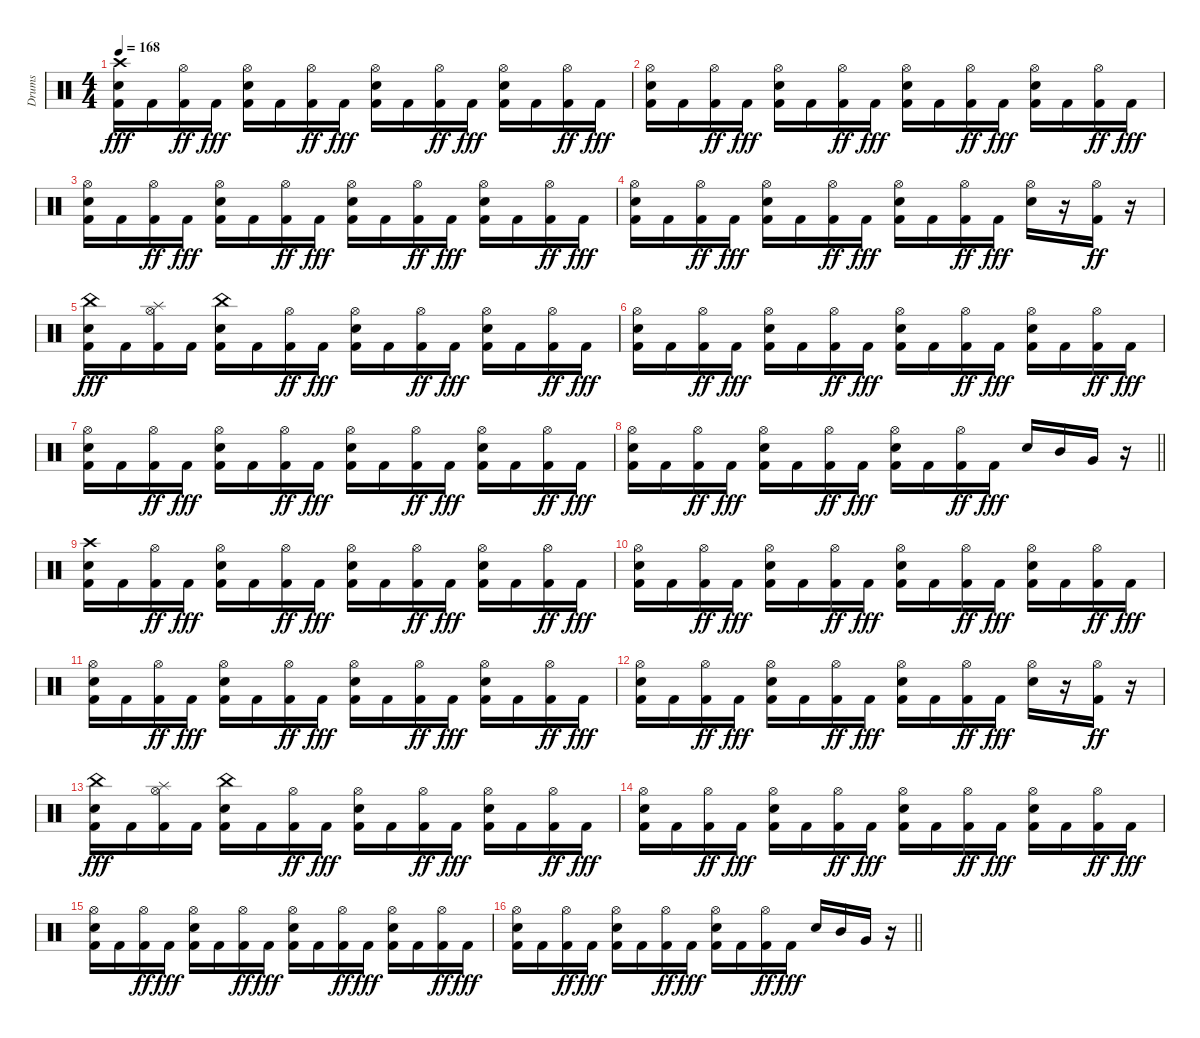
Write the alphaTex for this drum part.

\track ("Drums" "Drums") {instrument percussion}
\staff {score}
\articulation defaults
\ts (4 4)
\tempo 168
\clef neutral
\ks c
("Kick (hit) 2" "Snare (hit) 2" "Crash high (hit)").16{dy fff} "Kick (hit) 2".16 ("Kick (hit) 2" "Hi-Hat (open)").16{dy ff} "Kick (hit) 2".16{dy fff} ("Kick (hit) 2" "Snare (hit) 2" "Hi-Hat (open)").16 "Kick (hit) 2".16 ("Kick (hit) 2" "Hi-Hat (open)").16{dy ff} "Kick (hit) 2".16{dy fff} ("Kick (hit) 2" "Snare (hit) 2" "Hi-Hat (open)").16 "Kick (hit) 2".16 ("Kick (hit) 2" "Hi-Hat (open)").16{dy ff} "Kick (hit) 2".16{dy fff} ("Kick (hit) 2" "Snare (hit) 2" "Hi-Hat (open)").16 "Kick (hit) 2".16 ("Kick (hit) 2" "Hi-Hat (open)").16{dy ff} "Kick (hit) 2".16{dy fff} |
("Kick (hit) 2" "Snare (hit) 2" "Hi-Hat (open)").16 "Kick (hit) 2".16 ("Kick (hit) 2" "Hi-Hat (open)").16{dy ff} "Kick (hit) 2".16{dy fff} ("Kick (hit) 2" "Snare (hit) 2" "Hi-Hat (open)").16 "Kick (hit) 2".16 ("Kick (hit) 2" "Hi-Hat (open)").16{dy ff} "Kick (hit) 2".16{dy fff} ("Kick (hit) 2" "Snare (hit) 2" "Hi-Hat (open)").16 "Kick (hit) 2".16 ("Kick (hit) 2" "Hi-Hat (open)").16{dy ff} "Kick (hit) 2".16{dy fff} ("Kick (hit) 2" "Snare (hit) 2" "Hi-Hat (open)").16 "Kick (hit) 2".16 ("Kick (hit) 2" "Hi-Hat (open)").16{dy ff} "Kick (hit) 2".16{dy fff} |
("Kick (hit) 2" "Snare (hit) 2" "Hi-Hat (open)").16 "Kick (hit) 2".16 ("Kick (hit) 2" "Hi-Hat (open)").16{dy ff} "Kick (hit) 2".16{dy fff} ("Kick (hit) 2" "Snare (hit) 2" "Hi-Hat (open)").16 "Kick (hit) 2".16 ("Kick (hit) 2" "Hi-Hat (open)").16{dy ff} "Kick (hit) 2".16{dy fff} ("Kick (hit) 2" "Snare (hit) 2" "Hi-Hat (open)").16 "Kick (hit) 2".16 ("Kick (hit) 2" "Hi-Hat (open)").16{dy ff} "Kick (hit) 2".16{dy fff} ("Kick (hit) 2" "Snare (hit) 2" "Hi-Hat (open)").16 "Kick (hit) 2".16 ("Kick (hit) 2" "Hi-Hat (open)").16{dy ff} "Kick (hit) 2".16{dy fff} |
("Kick (hit) 2" "Snare (hit) 2" "Hi-Hat (open)").16 "Kick (hit) 2".16 ("Kick (hit) 2" "Hi-Hat (open)").16{dy ff} "Kick (hit) 2".16{dy fff} ("Kick (hit) 2" "Snare (hit) 2" "Hi-Hat (open)").16 "Kick (hit) 2".16 ("Kick (hit) 2" "Hi-Hat (open)").16{dy ff} "Kick (hit) 2".16{dy fff} ("Kick (hit) 2" "Snare (hit) 2" "Hi-Hat (open)").16 "Kick (hit) 2".16 ("Kick (hit) 2" "Hi-Hat (open)").16{dy ff} "Kick (hit) 2".16{dy fff} ("Snare (hit) 2" "Hi-Hat (open)").16 r.16 ("Kick (hit) 2" "Hi-Hat (open)").16{dy ff} r.16 |
("Kick (hit) 2" "Snare (hit) 2" "China (hit)").16{dy fff} "Kick (hit) 2".16 ("Kick (hit) 2" "Hi-Hat (open)" "Splash (hit)").16 "Kick (hit) 2".16 ("Kick (hit) 2" "Snare (hit) 2" "China (hit)").16 "Kick (hit) 2".16 ("Kick (hit) 2" "Hi-Hat (open)").16{dy ff} "Kick (hit) 2".16{dy fff} ("Kick (hit) 2" "Snare (hit) 2" "Hi-Hat (open)").16 "Kick (hit) 2".16 ("Kick (hit) 2" "Hi-Hat (open)").16{dy ff} "Kick (hit) 2".16{dy fff} ("Kick (hit) 2" "Snare (hit) 2" "Hi-Hat (open)").16 "Kick (hit) 2".16 ("Kick (hit) 2" "Hi-Hat (open)").16{dy ff} "Kick (hit) 2".16{dy fff} |
("Kick (hit) 2" "Snare (hit) 2" "Hi-Hat (open)").16 "Kick (hit) 2".16 ("Kick (hit) 2" "Hi-Hat (open)").16{dy ff} "Kick (hit) 2".16{dy fff} ("Kick (hit) 2" "Snare (hit) 2" "Hi-Hat (open)").16 "Kick (hit) 2".16 ("Kick (hit) 2" "Hi-Hat (open)").16{dy ff} "Kick (hit) 2".16{dy fff} ("Kick (hit) 2" "Snare (hit) 2" "Hi-Hat (open)").16 "Kick (hit) 2".16 ("Kick (hit) 2" "Hi-Hat (open)").16{dy ff} "Kick (hit) 2".16{dy fff} ("Kick (hit) 2" "Snare (hit) 2" "Hi-Hat (open)").16 "Kick (hit) 2".16 ("Kick (hit) 2" "Hi-Hat (open)").16{dy ff} "Kick (hit) 2".16{dy fff} |
("Kick (hit) 2" "Snare (hit) 2" "Hi-Hat (open)").16 "Kick (hit) 2".16 ("Kick (hit) 2" "Hi-Hat (open)").16{dy ff} "Kick (hit) 2".16{dy fff} ("Kick (hit) 2" "Snare (hit) 2" "Hi-Hat (open)").16 "Kick (hit) 2".16 ("Kick (hit) 2" "Hi-Hat (open)").16{dy ff} "Kick (hit) 2".16{dy fff} ("Kick (hit) 2" "Snare (hit) 2" "Hi-Hat (open)").16 "Kick (hit) 2".16 ("Kick (hit) 2" "Hi-Hat (open)").16{dy ff} "Kick (hit) 2".16{dy fff} ("Kick (hit) 2" "Snare (hit) 2" "Hi-Hat (open)").16 "Kick (hit) 2".16 ("Kick (hit) 2" "Hi-Hat (open)").16{dy ff} "Kick (hit) 2".16{dy fff} |
\barLineRight lightlight
("Kick (hit) 2" "Snare (hit) 2" "Hi-Hat (open)").16 "Kick (hit) 2".16 ("Kick (hit) 2" "Hi-Hat (open)").16{dy ff} "Kick (hit) 2".16{dy fff} ("Kick (hit) 2" "Snare (hit) 2" "Hi-Hat (open)").16 "Kick (hit) 2".16 ("Kick (hit) 2" "Hi-Hat (open)").16{dy ff} "Kick (hit) 2".16{dy fff} ("Kick (hit) 2" "Snare (hit) 2" "Hi-Hat (open)").16 "Kick (hit) 2".16 ("Kick (hit) 2" "Hi-Hat (open)").16{dy ff} "Kick (hit) 2".16{dy fff} "Snare (hit) 2".16 "Mid Tom (hit)".16 "Very Low Tom (hit)".16 r.16 |
("Kick (hit) 2" "Snare (hit) 2" "Crash high (hit)").16 "Kick (hit) 2".16 ("Kick (hit) 2" "Hi-Hat (open)").16{dy ff} "Kick (hit) 2".16{dy fff} ("Kick (hit) 2" "Snare (hit) 2" "Hi-Hat (open)").16 "Kick (hit) 2".16 ("Kick (hit) 2" "Hi-Hat (open)").16{dy ff} "Kick (hit) 2".16{dy fff} ("Kick (hit) 2" "Snare (hit) 2" "Hi-Hat (open)").16 "Kick (hit) 2".16 ("Kick (hit) 2" "Hi-Hat (open)").16{dy ff} "Kick (hit) 2".16{dy fff} ("Kick (hit) 2" "Snare (hit) 2" "Hi-Hat (open)").16 "Kick (hit) 2".16 ("Kick (hit) 2" "Hi-Hat (open)").16{dy ff} "Kick (hit) 2".16{dy fff} |
("Kick (hit) 2" "Snare (hit) 2" "Hi-Hat (open)").16 "Kick (hit) 2".16 ("Kick (hit) 2" "Hi-Hat (open)").16{dy ff} "Kick (hit) 2".16{dy fff} ("Kick (hit) 2" "Snare (hit) 2" "Hi-Hat (open)").16 "Kick (hit) 2".16 ("Kick (hit) 2" "Hi-Hat (open)").16{dy ff} "Kick (hit) 2".16{dy fff} ("Kick (hit) 2" "Snare (hit) 2" "Hi-Hat (open)").16 "Kick (hit) 2".16 ("Kick (hit) 2" "Hi-Hat (open)").16{dy ff} "Kick (hit) 2".16{dy fff} ("Kick (hit) 2" "Snare (hit) 2" "Hi-Hat (open)").16 "Kick (hit) 2".16 ("Kick (hit) 2" "Hi-Hat (open)").16{dy ff} "Kick (hit) 2".16{dy fff} |
("Kick (hit) 2" "Snare (hit) 2" "Hi-Hat (open)").16 "Kick (hit) 2".16 ("Kick (hit) 2" "Hi-Hat (open)").16{dy ff} "Kick (hit) 2".16{dy fff} ("Kick (hit) 2" "Snare (hit) 2" "Hi-Hat (open)").16 "Kick (hit) 2".16 ("Kick (hit) 2" "Hi-Hat (open)").16{dy ff} "Kick (hit) 2".16{dy fff} ("Kick (hit) 2" "Snare (hit) 2" "Hi-Hat (open)").16 "Kick (hit) 2".16 ("Kick (hit) 2" "Hi-Hat (open)").16{dy ff} "Kick (hit) 2".16{dy fff} ("Kick (hit) 2" "Snare (hit) 2" "Hi-Hat (open)").16 "Kick (hit) 2".16 ("Kick (hit) 2" "Hi-Hat (open)").16{dy ff} "Kick (hit) 2".16{dy fff} |
("Kick (hit) 2" "Snare (hit) 2" "Hi-Hat (open)").16 "Kick (hit) 2".16 ("Kick (hit) 2" "Hi-Hat (open)").16{dy ff} "Kick (hit) 2".16{dy fff} ("Kick (hit) 2" "Snare (hit) 2" "Hi-Hat (open)").16 "Kick (hit) 2".16 ("Kick (hit) 2" "Hi-Hat (open)").16{dy ff} "Kick (hit) 2".16{dy fff} ("Kick (hit) 2" "Snare (hit) 2" "Hi-Hat (open)").16 "Kick (hit) 2".16 ("Kick (hit) 2" "Hi-Hat (open)").16{dy ff} "Kick (hit) 2".16{dy fff} ("Snare (hit) 2" "Hi-Hat (open)").16 r.16 ("Kick (hit) 2" "Hi-Hat (open)").16{dy ff} r.16 |
("Kick (hit) 2" "Snare (hit) 2" "China (hit)").16{dy fff} "Kick (hit) 2".16 ("Kick (hit) 2" "Hi-Hat (open)" "Splash (hit)").16 "Kick (hit) 2".16 ("Kick (hit) 2" "Snare (hit) 2" "China (hit)").16 "Kick (hit) 2".16 ("Kick (hit) 2" "Hi-Hat (open)").16{dy ff} "Kick (hit) 2".16{dy fff} ("Kick (hit) 2" "Snare (hit) 2" "Hi-Hat (open)").16 "Kick (hit) 2".16 ("Kick (hit) 2" "Hi-Hat (open)").16{dy ff} "Kick (hit) 2".16{dy fff} ("Kick (hit) 2" "Snare (hit) 2" "Hi-Hat (open)").16 "Kick (hit) 2".16 ("Kick (hit) 2" "Hi-Hat (open)").16{dy ff} "Kick (hit) 2".16{dy fff} |
("Kick (hit) 2" "Snare (hit) 2" "Hi-Hat (open)").16 "Kick (hit) 2".16 ("Kick (hit) 2" "Hi-Hat (open)").16{dy ff} "Kick (hit) 2".16{dy fff} ("Kick (hit) 2" "Snare (hit) 2" "Hi-Hat (open)").16 "Kick (hit) 2".16 ("Kick (hit) 2" "Hi-Hat (open)").16{dy ff} "Kick (hit) 2".16{dy fff} ("Kick (hit) 2" "Snare (hit) 2" "Hi-Hat (open)").16 "Kick (hit) 2".16 ("Kick (hit) 2" "Hi-Hat (open)").16{dy ff} "Kick (hit) 2".16{dy fff} ("Kick (hit) 2" "Snare (hit) 2" "Hi-Hat (open)").16 "Kick (hit) 2".16 ("Kick (hit) 2" "Hi-Hat (open)").16{dy ff} "Kick (hit) 2".16{dy fff} |
("Kick (hit) 2" "Snare (hit) 2" "Hi-Hat (open)").16 "Kick (hit) 2".16 ("Kick (hit) 2" "Hi-Hat (open)").16{dy ff} "Kick (hit) 2".16{dy fff} ("Kick (hit) 2" "Snare (hit) 2" "Hi-Hat (open)").16 "Kick (hit) 2".16 ("Kick (hit) 2" "Hi-Hat (open)").16{dy ff} "Kick (hit) 2".16{dy fff} ("Kick (hit) 2" "Snare (hit) 2" "Hi-Hat (open)").16 "Kick (hit) 2".16 ("Kick (hit) 2" "Hi-Hat (open)").16{dy ff} "Kick (hit) 2".16{dy fff} ("Kick (hit) 2" "Snare (hit) 2" "Hi-Hat (open)").16 "Kick (hit) 2".16 ("Kick (hit) 2" "Hi-Hat (open)").16{dy ff} "Kick (hit) 2".16{dy fff} |
\barLineRight lightlight
("Kick (hit) 2" "Snare (hit) 2" "Hi-Hat (open)").16 "Kick (hit) 2".16 ("Kick (hit) 2" "Hi-Hat (open)").16{dy ff} "Kick (hit) 2".16{dy fff} ("Kick (hit) 2" "Snare (hit) 2" "Hi-Hat (open)").16 "Kick (hit) 2".16 ("Kick (hit) 2" "Hi-Hat (open)").16{dy ff} "Kick (hit) 2".16{dy fff} ("Kick (hit) 2" "Snare (hit) 2" "Hi-Hat (open)").16 "Kick (hit) 2".16 ("Kick (hit) 2" "Hi-Hat (open)").16{dy ff} "Kick (hit) 2".16{dy fff} "Snare (hit) 2".16 "Mid Tom (hit)".16 "Very Low Tom (hit)".16 r.16
